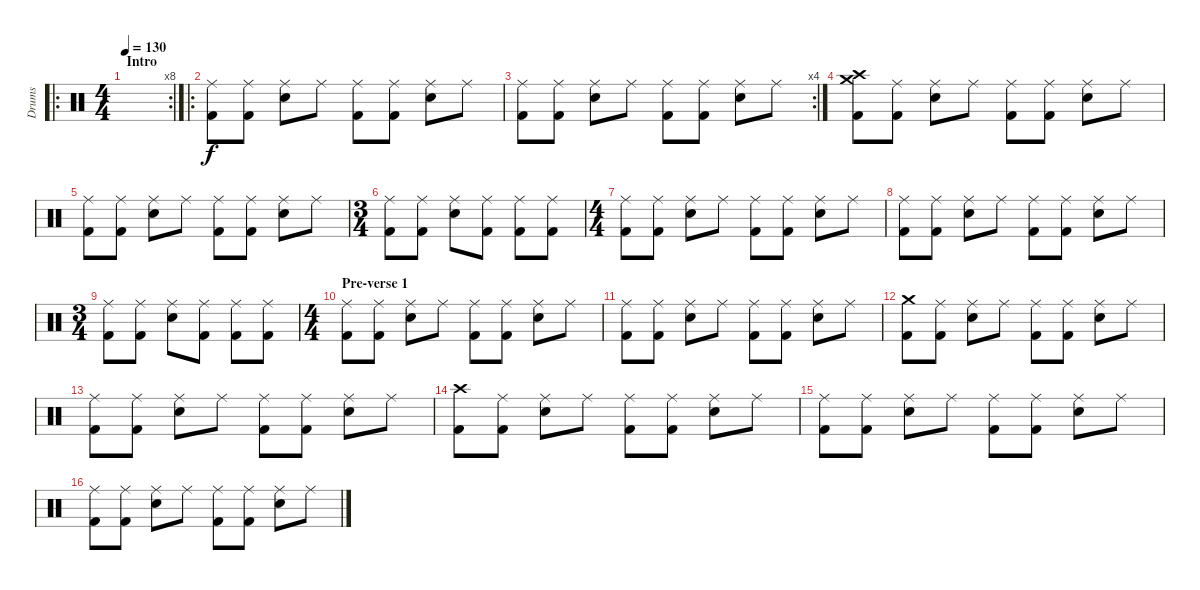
\track ("Drums" "Drums") {instrument percussion}
\staff {score}
\articulation defaults
\ro
\rc 8
\ts (4 4)
\section ("" "Intro")
\tempo 130
\clef neutral
\ks c
|
\ro
("Ride (middle)" "Kick (hit) 2").8 ("Ride (middle)" "Kick (hit) 2").8 ("Ride (middle)" "Electric Snare (hit)").8 "Ride (middle)".8 ("Ride (middle)" "Kick (hit) 2").8 ("Ride (middle)" "Kick (hit) 2").8 ("Ride (middle)" "Electric Snare (hit)").8 "Ride (middle)".8 |
\rc 4
("Ride (middle)" "Kick (hit) 2").8 ("Ride (middle)" "Kick (hit) 2").8 ("Ride (middle)" "Electric Snare (hit)").8 "Ride (middle)".8 ("Ride (middle)" "Kick (hit) 2").8 ("Ride (middle)" "Kick (hit) 2").8 ("Ride (middle)" "Electric Snare (hit)").8 "Ride (middle)".8 |
("Crash medium (hit)" "Crash high (hit)" "Kick (hit) 2").8 ("Ride (middle)" "Kick (hit) 2").8 ("Ride (middle)" "Electric Snare (hit)").8 "Ride (middle)".8 ("Ride (middle)" "Kick (hit) 2").8 ("Ride (middle)" "Kick (hit) 2").8 ("Ride (middle)" "Electric Snare (hit)").8 "Ride (middle)".8 |
("Ride (middle)" "Kick (hit) 2").8 ("Ride (middle)" "Kick (hit) 2").8 ("Ride (middle)" "Electric Snare (hit)").8 "Ride (middle)".8 ("Ride (middle)" "Kick (hit) 2").8 ("Ride (middle)" "Kick (hit) 2").8 ("Ride (middle)" "Electric Snare (hit)").8 "Ride (middle)".8 |
\ts (3 4)
("Ride (middle)" "Kick (hit) 2").8 ("Ride (middle)" "Kick (hit) 2").8 ("Ride (middle)" "Electric Snare (hit)").8 ("Ride (middle)" "Kick (hit) 2").8 ("Ride (middle)" "Kick (hit) 2").8 ("Ride (middle)" "Kick (hit) 2").8 |
\ts (4 4)
("Ride (middle)" "Kick (hit) 2").8 ("Ride (middle)" "Kick (hit) 2").8 ("Ride (middle)" "Electric Snare (hit)").8 "Ride (middle)".8 ("Ride (middle)" "Kick (hit) 2").8 ("Ride (middle)" "Kick (hit) 2").8 ("Ride (middle)" "Electric Snare (hit)").8 "Ride (middle)".8 |
("Ride (middle)" "Kick (hit) 2").8 ("Ride (middle)" "Kick (hit) 2").8 ("Ride (middle)" "Electric Snare (hit)").8 "Ride (middle)".8 ("Ride (middle)" "Kick (hit) 2").8 ("Ride (middle)" "Kick (hit) 2").8 ("Ride (middle)" "Electric Snare (hit)").8 "Ride (middle)".8 |
\ts (3 4)
("Ride (middle)" "Kick (hit) 2").8 ("Ride (middle)" "Kick (hit) 2").8 ("Ride (middle)" "Electric Snare (hit)").8 ("Ride (middle)" "Kick (hit) 2").8 ("Ride (middle)" "Kick (hit) 2").8 ("Ride (middle)" "Kick (hit) 2").8 |
\ts (4 4)
\section ("" "Pre-verse 1")
("Ride (middle)" "Kick (hit) 2").8 ("Ride (middle)" "Kick (hit) 2").8 ("Ride (middle)" "Electric Snare (hit)").8 "Ride (middle)".8 ("Ride (middle)" "Kick (hit) 2").8 ("Ride (middle)" "Kick (hit) 2").8 ("Ride (middle)" "Electric Snare (hit)").8 "Ride (middle)".8 |
("Ride (middle)" "Kick (hit) 2").8 ("Ride (middle)" "Kick (hit) 2").8 ("Ride (middle)" "Electric Snare (hit)").8 "Ride (middle)".8 ("Ride (middle)" "Kick (hit) 2").8 ("Ride (middle)" "Kick (hit) 2").8 ("Ride (middle)" "Electric Snare (hit)").8 "Ride (middle)".8 |
("Crash medium (hit)" "Kick (hit) 2").8 ("Ride (middle)" "Kick (hit) 2").8 ("Ride (middle)" "Electric Snare (hit)").8 "Ride (middle)".8 ("Ride (middle)" "Kick (hit) 2").8 ("Ride (middle)" "Kick (hit) 2").8 ("Ride (middle)" "Electric Snare (hit)").8 "Ride (middle)".8 |
("Ride (middle)" "Kick (hit) 2").8 ("Ride (middle)" "Kick (hit) 2").8 ("Ride (middle)" "Electric Snare (hit)").8 "Ride (middle)".8 ("Ride (middle)" "Kick (hit) 2").8 ("Ride (middle)" "Kick (hit) 2").8 ("Ride (middle)" "Electric Snare (hit)").8 "Ride (middle)".8 |
("Crash high (hit)" "Kick (hit) 2").8 ("Ride (middle)" "Kick (hit) 2").8 ("Ride (middle)" "Electric Snare (hit)").8 "Ride (middle)".8 ("Ride (middle)" "Kick (hit) 2").8 ("Ride (middle)" "Kick (hit) 2").8 ("Ride (middle)" "Electric Snare (hit)").8 "Ride (middle)".8 |
("Ride (middle)" "Kick (hit) 2").8 ("Ride (middle)" "Kick (hit) 2").8 ("Ride (middle)" "Electric Snare (hit)").8 "Ride (middle)".8 ("Ride (middle)" "Kick (hit) 2").8 ("Ride (middle)" "Kick (hit) 2").8 ("Ride (middle)" "Electric Snare (hit)").8 "Ride (middle)".8 |
("Ride (middle)" "Kick (hit) 2").8 ("Ride (middle)" "Kick (hit) 2").8 ("Ride (middle)" "Electric Snare (hit)").8 "Ride (middle)".8 ("Ride (middle)" "Kick (hit) 2").8 ("Ride (middle)" "Kick (hit) 2").8 ("Ride (middle)" "Electric Snare (hit)").8 "Ride (middle)".8
